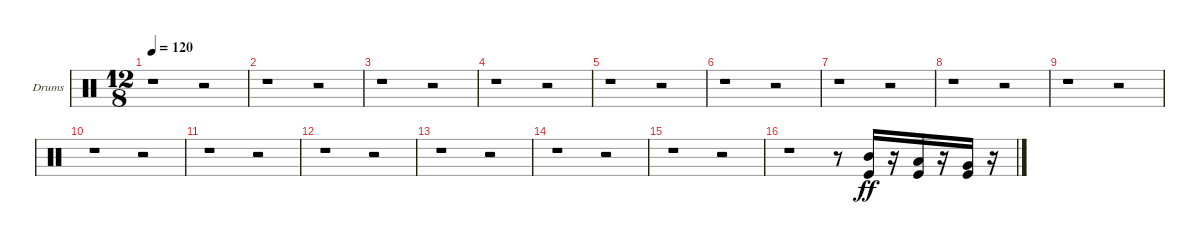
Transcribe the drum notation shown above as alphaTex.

\bracketExtendMode groupsimilarinstruments
\firstSystemTrackNameOrientation horizontal
\otherSystemsTrackNameOrientation horizontal
\track ("Drumkit" "Drums") {instrument percussion}
\staff {score}
\articulation defaults
\ts (12 8)
\tempo 120
\clef neutral
\ks c
r.1{dy ff} r.2 |
r.1 r.2 |
r.1 r.2 |
r.1 r.2 |
r.1 r.2 |
r.1 r.2 |
r.1 r.2 |
r.1 r.2 |
r.1 r.2 |
r.1 r.2 |
r.1 r.2 |
r.1 r.2 |
r.1 r.2 |
r.1 r.2 |
r.1 r.2 |
r.1 r.8 ("Mid Tom (hit)" "Kick (hit)").16 r.16 ("Low Tom (hit)" "Kick (hit)").16 r.16 ("Very Low Tom (hit)" "Kick (hit)").16 r.16
